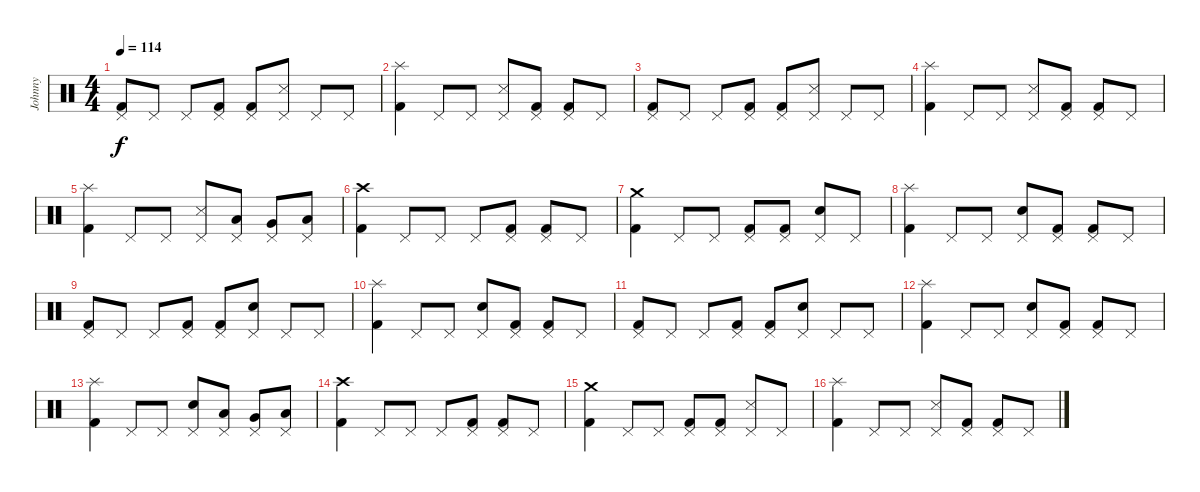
\track ("Johnny" "Johnny") {instrument percussion}
\staff {score}
\articulation defaults
\ts (4 4)
\tempo 114
\clef neutral
\ks c
("Pedal Hi-Hat (hit)" "Kick (hit) 2").8{dy f} "Pedal Hi-Hat (hit)".8 "Pedal Hi-Hat (hit)".8 ("Pedal Hi-Hat (hit)" "Kick (hit) 2").8 ("Pedal Hi-Hat (hit)" "Kick (hit) 2").8 ("Pedal Hi-Hat (hit)" "Snare (side stick) 3").8 "Pedal Hi-Hat (hit)".8 "Pedal Hi-Hat (hit)".8 |
("Splash (hit)" "Kick (hit) 2").4 "Pedal Hi-Hat (hit)".8 "Pedal Hi-Hat (hit)".8 ("Pedal Hi-Hat (hit)" "Snare (side stick) 3").8 ("Pedal Hi-Hat (hit)" "Kick (hit) 2").8 ("Pedal Hi-Hat (hit)" "Kick (hit) 2").8 "Pedal Hi-Hat (hit)".8 |
("Pedal Hi-Hat (hit)" "Kick (hit) 2").8 "Pedal Hi-Hat (hit)".8 "Pedal Hi-Hat (hit)".8 ("Pedal Hi-Hat (hit)" "Kick (hit) 2").8 ("Pedal Hi-Hat (hit)" "Kick (hit) 2").8 ("Pedal Hi-Hat (hit)" "Snare (side stick) 3").8 "Pedal Hi-Hat (hit)".8 "Pedal Hi-Hat (hit)".8 |
("Splash (hit)" "Kick (hit) 2").4 "Pedal Hi-Hat (hit)".8 "Pedal Hi-Hat (hit)".8 ("Pedal Hi-Hat (hit)" "Snare (side stick) 3").8 ("Pedal Hi-Hat (hit)" "Kick (hit) 2").8 ("Pedal Hi-Hat (hit)" "Kick (hit) 2").8 "Pedal Hi-Hat (hit)".8 |
("Splash (hit)" "Kick (hit) 2").4 "Pedal Hi-Hat (hit)".8 "Pedal Hi-Hat (hit)".8 ("Pedal Hi-Hat (hit)" "Snare (side stick) 3").8 ("Pedal Hi-Hat (hit)" "Low Tom (hit)").8 ("Pedal Hi-Hat (hit)" "Very Low Tom (hit)").8 ("Pedal Hi-Hat (hit)" "Low Floor Tom (hit)").8 |
("Crash high (hit)" "Kick (hit) 2").4 "Pedal Hi-Hat (hit)".8 "Pedal Hi-Hat (hit)".8 "Pedal Hi-Hat (hit)".8 ("Pedal Hi-Hat (hit)" "Kick (hit) 2").8 ("Pedal Hi-Hat (hit)" "Kick (hit) 2").8 "Pedal Hi-Hat (hit)".8 |
("Crash medium (hit)" "Kick (hit) 2").4 "Pedal Hi-Hat (hit)".8 "Pedal Hi-Hat (hit)".8 ("Pedal Hi-Hat (hit)" "Kick (hit) 2").8 ("Pedal Hi-Hat (hit)" "Kick (hit) 2").8 ("Pedal Hi-Hat (hit)" "Snare (hit) 2").8 "Pedal Hi-Hat (hit)".8 |
("Splash (hit)" "Kick (hit) 2").4 "Pedal Hi-Hat (hit)".8 "Pedal Hi-Hat (hit)".8 ("Pedal Hi-Hat (hit)" "Snare (hit) 2").8 ("Pedal Hi-Hat (hit)" "Kick (hit) 2").8 ("Pedal Hi-Hat (hit)" "Kick (hit) 2").8 "Pedal Hi-Hat (hit)".8 |
("Pedal Hi-Hat (hit)" "Kick (hit) 2").8 "Pedal Hi-Hat (hit)".8 "Pedal Hi-Hat (hit)".8 ("Pedal Hi-Hat (hit)" "Kick (hit) 2").8 ("Pedal Hi-Hat (hit)" "Kick (hit) 2").8 ("Pedal Hi-Hat (hit)" "Snare (hit) 2").8 "Pedal Hi-Hat (hit)".8 "Pedal Hi-Hat (hit)".8 |
("Splash (hit)" "Kick (hit) 2").4 "Pedal Hi-Hat (hit)".8 "Pedal Hi-Hat (hit)".8 ("Pedal Hi-Hat (hit)" "Snare (hit) 2").8 ("Pedal Hi-Hat (hit)" "Kick (hit) 2").8 ("Pedal Hi-Hat (hit)" "Kick (hit) 2").8 "Pedal Hi-Hat (hit)".8 |
("Pedal Hi-Hat (hit)" "Kick (hit) 2").8 "Pedal Hi-Hat (hit)".8 "Pedal Hi-Hat (hit)".8 ("Pedal Hi-Hat (hit)" "Kick (hit) 2").8 ("Pedal Hi-Hat (hit)" "Kick (hit) 2").8 ("Pedal Hi-Hat (hit)" "Snare (hit) 2").8 "Pedal Hi-Hat (hit)".8 "Pedal Hi-Hat (hit)".8 |
("Splash (hit)" "Kick (hit) 2").4 "Pedal Hi-Hat (hit)".8 "Pedal Hi-Hat (hit)".8 ("Pedal Hi-Hat (hit)" "Snare (hit) 2").8 ("Pedal Hi-Hat (hit)" "Kick (hit) 2").8 ("Pedal Hi-Hat (hit)" "Kick (hit) 2").8 "Pedal Hi-Hat (hit)".8 |
("Splash (hit)" "Kick (hit) 2").4 "Pedal Hi-Hat (hit)".8 "Pedal Hi-Hat (hit)".8 ("Pedal Hi-Hat (hit)" "Snare (hit) 2").8 ("Pedal Hi-Hat (hit)" "Low Tom (hit)").8 ("Pedal Hi-Hat (hit)" "Very Low Tom (hit)").8 ("Pedal Hi-Hat (hit)" "Low Floor Tom (hit)").8 |
("Crash high (hit)" "Kick (hit) 2").4 "Pedal Hi-Hat (hit)".8 "Pedal Hi-Hat (hit)".8 "Pedal Hi-Hat (hit)".8 ("Pedal Hi-Hat (hit)" "Kick (hit) 2").8 ("Pedal Hi-Hat (hit)" "Kick (hit) 2").8 "Pedal Hi-Hat (hit)".8 |
("Crash medium (hit)" "Kick (hit) 2").4 "Pedal Hi-Hat (hit)".8 "Pedal Hi-Hat (hit)".8 ("Pedal Hi-Hat (hit)" "Kick (hit) 2").8 ("Pedal Hi-Hat (hit)" "Kick (hit) 2").8 ("Pedal Hi-Hat (hit)" "Snare (side stick) 3").8 "Pedal Hi-Hat (hit)".8 |
("Splash (hit)" "Kick (hit) 2").4 "Pedal Hi-Hat (hit)".8 "Pedal Hi-Hat (hit)".8 ("Pedal Hi-Hat (hit)" "Snare (side stick) 3").8 ("Pedal Hi-Hat (hit)" "Kick (hit) 2").8 ("Pedal Hi-Hat (hit)" "Kick (hit) 2").8 "Pedal Hi-Hat (hit)".8
